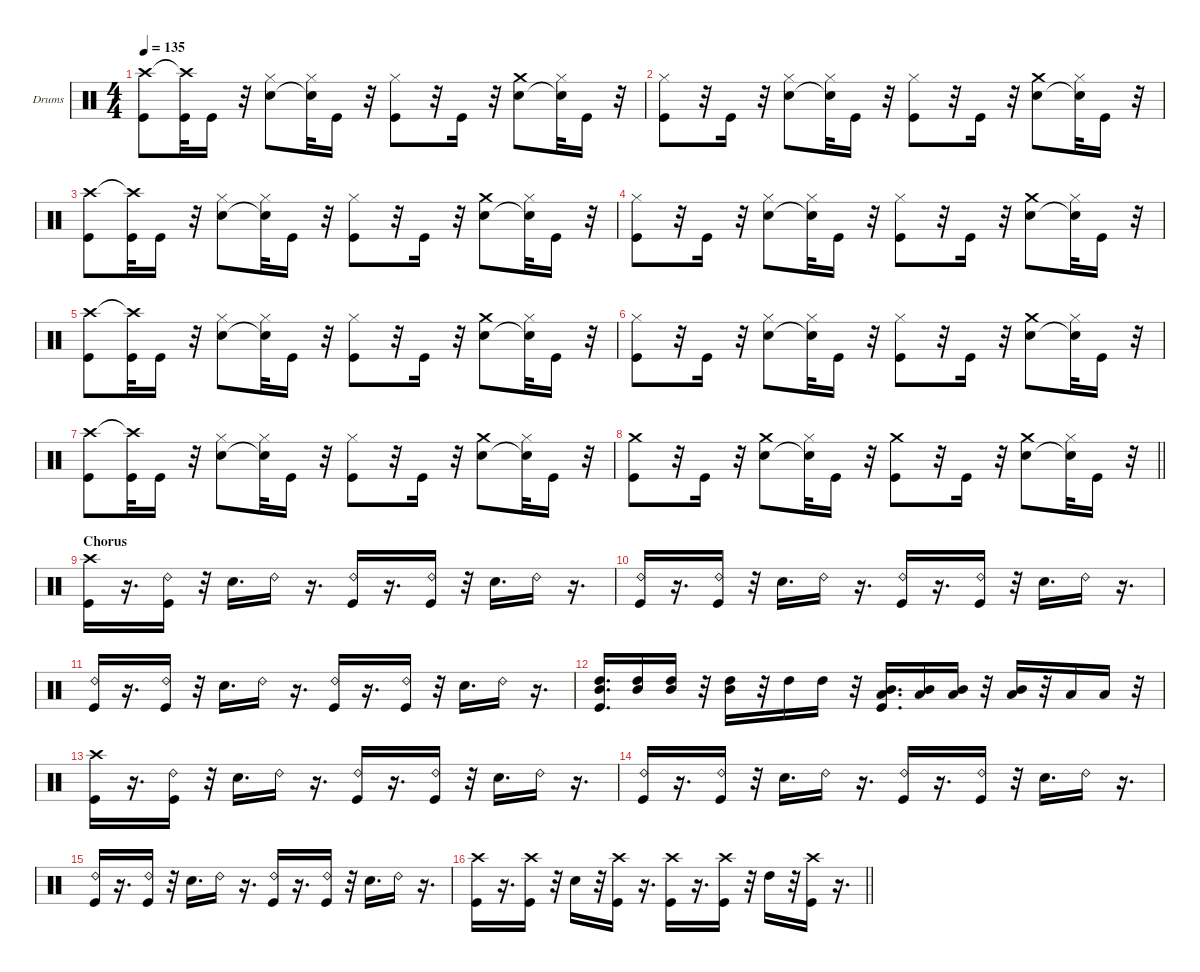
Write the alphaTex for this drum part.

\hideDynamics
\bracketExtendMode groupsimilarinstruments
\firstSystemTrackNameOrientation horizontal
\otherSystemsTrackNameOrientation horizontal
\track ("Drumkit" "Drums") {solo instrument percussion}
\staff {score}
\articulation defaults
\ts (4 4)
\tempo 135
\clef neutral
\scale
0.333333
\ks c
("Crash high (hit)" "Kick (hit)").8{dy fff} ("Crash high (hit)"{t} "Kick (hit)").32 "Kick (hit)".16 r.32 ("Hi-Hat (closed)" "Snare (hit) 2").8 ("Hi-Hat (closed)" "Snare (hit) 2"{t}).32 "Kick (hit)".16 r.32 ("Hi-Hat (closed)" "Kick (hit)").8 r.32 "Kick (hit)".16 r.32 ("Crash medium (hit)" "Snare (hit) 2").8 ("Hi-Hat (closed)" "Snare (hit) 2"{t}).32 "Kick (hit)".16 r.32 |
\scale
0.333333 ("Kick (hit)" "Hi-Hat (closed)").8 r.32 "Kick (hit)".16 r.32 ("Hi-Hat (closed)" "Snare (hit) 2").8 ("Hi-Hat (closed)" "Snare (hit) 2"{t}).32 "Kick (hit)".16 r.32 ("Hi-Hat (closed)" "Kick (hit)").8 r.32 "Kick (hit)".16 r.32 ("Crash medium (hit)" "Snare (hit) 2").8 ("Hi-Hat (closed)" "Snare (hit) 2"{t}).32 "Kick (hit)".16 r.32 |
\scale
0.333333 ("Crash high (hit)" "Kick (hit)").8 ("Crash high (hit)"{t} "Kick (hit)").32 "Kick (hit)".16 r.32 ("Hi-Hat (closed)" "Snare (hit) 2").8 ("Hi-Hat (closed)" "Snare (hit) 2"{t}).32 "Kick (hit)".16 r.32 ("Hi-Hat (closed)" "Kick (hit)").8 r.32 "Kick (hit)".16 r.32 ("Crash medium (hit)" "Snare (hit) 2").8 ("Hi-Hat (closed)" "Snare (hit) 2"{t}).32 "Kick (hit)".16 r.32 |
\scale
0.333333 ("Kick (hit)" "Hi-Hat (closed)").8 r.32 "Kick (hit)".16 r.32 ("Hi-Hat (closed)" "Snare (hit) 2").8 ("Hi-Hat (closed)" "Snare (hit) 2"{t}).32 "Kick (hit)".16 r.32 ("Hi-Hat (closed)" "Kick (hit)").8 r.32 "Kick (hit)".16 r.32 ("Crash medium (hit)" "Snare (hit) 2").8 ("Hi-Hat (closed)" "Snare (hit) 2"{t}).32 "Kick (hit)".16 r.32 |
\scale
0.333333 ("Crash high (hit)" "Kick (hit)").8 ("Crash high (hit)"{t} "Kick (hit)").32 "Kick (hit)".16 r.32 ("Hi-Hat (closed)" "Snare (hit) 2").8 ("Hi-Hat (closed)" "Snare (hit) 2"{t}).32 "Kick (hit)".16 r.32 ("Hi-Hat (closed)" "Kick (hit)").8 r.32 "Kick (hit)".16 r.32 ("Crash medium (hit)" "Snare (hit) 2").8 ("Hi-Hat (closed)" "Snare (hit) 2"{t}).32 "Kick (hit)".16 r.32 |
\scale
0.333333 ("Kick (hit)" "Hi-Hat (closed)").8 r.32 "Kick (hit)".16 r.32 ("Hi-Hat (closed)" "Snare (hit) 2").8 ("Hi-Hat (closed)" "Snare (hit) 2"{t}).32 "Kick (hit)".16 r.32 ("Hi-Hat (closed)" "Kick (hit)").8 r.32 "Kick (hit)".16 r.32 ("Crash medium (hit)" "Snare (hit) 2").8 ("Hi-Hat (closed)" "Snare (hit) 2"{t}).32 "Kick (hit)".16 r.32 |
\scale
0.333333 ("Crash high (hit)" "Kick (hit)").8 ("Crash high (hit)"{t} "Kick (hit)").32 "Kick (hit)".16 r.32 ("Hi-Hat (closed)" "Snare (hit) 2").8 ("Hi-Hat (closed)" "Snare (hit) 2"{t}).32 "Kick (hit)".16 r.32 ("Hi-Hat (closed)" "Kick (hit)").8 r.32 "Kick (hit)".16 r.32 ("Crash medium (hit)" "Snare (hit) 2").8 ("Hi-Hat (closed)" "Snare (hit) 2"{t}).32 "Kick (hit)".16 r.32 |
\scale
0.333333
\barLineRight lightlight
("Crash medium (hit)" "Kick (hit)").8 r.32 "Kick (hit)".16 r.32 ("Crash medium (hit)" "Snare (hit) 2").8 ("Hi-Hat (closed)" "Snare (hit) 2"{t}).32 "Kick (hit)".16 r.32 ("Crash medium (hit)" "Kick (hit)").8 r.32 "Kick (hit)".16 r.32 ("Crash medium (hit)" "Snare (hit) 2").8 ("Hi-Hat (closed)" "Snare (hit) 2"{t}).32 "Kick (hit)".16 r.32 |
\section ("" "Chorus")
\scale
0.333333 ("Crash high (hit)" "Kick (hit)").16{dy mf} r.16{d} ("Kick (hit)" "Ride (bell) 2").16 r.32 "Snare (hit) 2".16{d} "Ride (bell) 2".16 r.16{d} ("Kick (hit)" "Ride (bell) 2").16 r.16{d} ("Ride (bell) 2" "Kick (hit)").16 r.32 "Snare (hit) 2".16{d} "Ride (bell) 2".16 r.16{d} |
\scale
0.333333 ("Kick (hit)" "Ride (bell) 2").16 r.16{d} ("Kick (hit)" "Ride (bell) 2").16 r.32 "Snare (hit) 2".16{d} "Ride (bell) 2".16 r.16{d} ("Kick (hit)" "Ride (bell) 2").16 r.16{d} ("Ride (bell) 2" "Kick (hit)").16 r.32 "Snare (hit) 2".16{d} "Ride (bell) 2".16 r.16{d} |
\scale
0.333333 ("Kick (hit)" "Ride (bell) 2").16 r.16{d} ("Kick (hit)" "Ride (bell) 2").16 r.32 "Snare (hit) 2".16{d} "Ride (bell) 2".16 r.16{d} ("Kick (hit)" "Ride (bell) 2").16 r.16{d} ("Ride (bell) 2" "Kick (hit)").16 r.32 "Snare (hit) 2".16{d} "Ride (bell) 2".16 r.16{d} |
\scale
0.333333 ("Kick (hit)" "Mid Tom (hit)" "High Tom (hit)").16{d} ("High Tom (hit)" "Mid Tom (hit)").16 ("Mid Tom (hit)" "High Tom (hit)").16 r.32 ("High Tom (hit)" "Mid Tom (hit)").16 r.32 "High Tom (hit)".16 "High Tom (hit)".16 r.32 ("Low Tom (hit)" "Mid Tom (hit)" "Kick (hit)").16{d} ("Low Tom (hit)" "Mid Tom (hit)").16 ("Mid Tom (hit)" "Low Tom (hit)").16 r.32 ("Low Tom (hit)" "Mid Tom (hit)").16 r.32 "Low Tom (hit)".16 "Low Tom (hit)".16 r.32 |
\scale
0.333333 ("Crash high (hit)" "Kick (hit)").16 r.16{d} ("Kick (hit)" "Ride (bell) 2").16 r.32 "Snare (hit) 2".16{d} "Ride (bell) 2".16 r.16{d} ("Kick (hit)" "Ride (bell) 2").16 r.16{d} ("Ride (bell) 2" "Kick (hit)").16 r.32 "Snare (hit) 2".16{d} "Ride (bell) 2".16 r.16{d} |
\scale
0.333333 ("Kick (hit)" "Ride (bell) 2").16 r.16{d} ("Kick (hit)" "Ride (bell) 2").16 r.32 "Snare (hit) 2".16{d} "Ride (bell) 2".16 r.16{d} ("Kick (hit)" "Ride (bell) 2").16 r.16{d} ("Ride (bell) 2" "Kick (hit)").16 r.32 "Snare (hit) 2".16{d} "Ride (bell) 2".16 r.16{d} |
\scale
0.333333 ("Kick (hit)" "Ride (bell) 2").16 r.16{d} ("Kick (hit)" "Ride (bell) 2").16 r.32 "Snare (hit) 2".16{d} "Ride (bell) 2".16 r.16{d} ("Kick (hit)" "Ride (bell) 2").16 r.16{d} ("Ride (bell) 2" "Kick (hit)").16 r.32 "Snare (hit) 2".16{d} "Ride (bell) 2".16 r.16{d} |
\scale
0.333333
\barLineRight lightlight
("Crash high (hit)" "Kick (hit)").16 r.16{d} ("Crash high (hit)" "Kick (hit)").16 r.32 "Snare (hit) 2".16 r.32 ("Crash high (hit)" "Kick (hit)").16 r.16{d} ("Crash high (hit)" "Kick (hit)").16 r.16{d} ("Crash high (hit)" "Kick (hit)").16 r.32 "High Tom (hit)".16 r.32 ("Crash high (hit)" "Kick (hit)").16 r.16{d}
